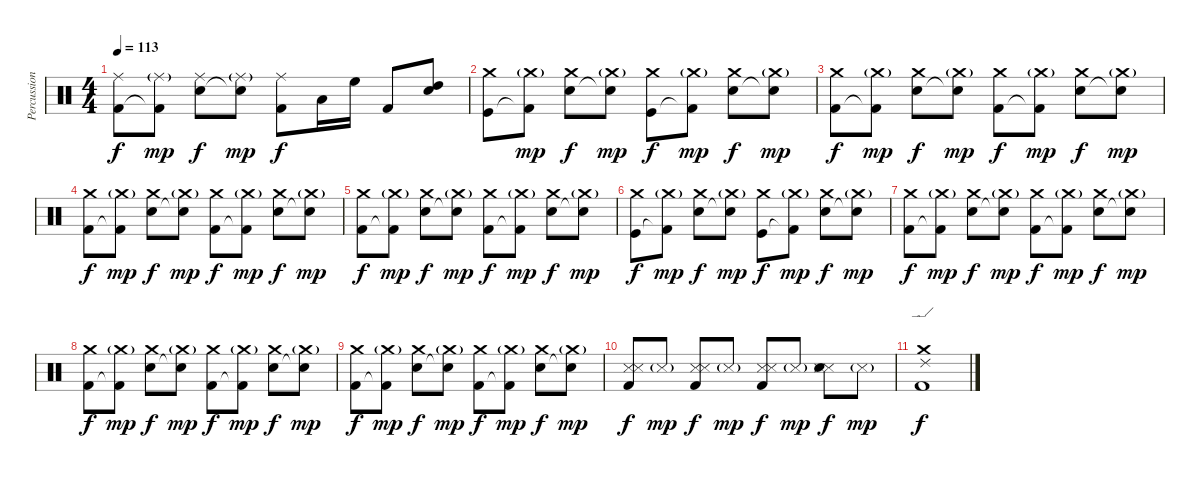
\track ("Percussion" "Percussion") {instrument percussion}
\staff {score}
\articulation defaults
\ts (4 4)
\tempo 113
\clef neutral
\ks c
("Ride (middle)" "Kick (hit) 2").8{dy f} ("Ride (middle)"{g} "Kick (hit) 2"{t}).8{dy mp} ("Ride (middle)" "Snare (hit) 2").8{dy f} ("Ride (middle)"{g} "Snare (hit) 2"{t}).8{dy mp} ("Ride (middle)" "Kick (hit) 2").8{dy f} "Low Tom (hit)".16 "High Floor Tom (hit)".16 "Kick (hit) 2".8 ("Snare (hit) 2" "High Tom (hit)").8 |
("Crash medium (hit)" "Kick (hit)").8 ("Crash medium (hit)"{g} "Kick (hit) 2"{t}).8{dy mp} ("Crash medium (hit)" "Snare (hit) 2").8{dy f} ("Crash medium (hit)"{g} "Snare (hit) 2"{t}).8{dy mp} ("Crash medium (hit)" "Kick (hit)").8{dy f} ("Crash medium (hit)"{g} "Kick (hit) 2"{t}).8{dy mp} ("Crash medium (hit)" "Snare (hit) 2").8{dy f} ("Crash medium (hit)"{g} "Snare (hit) 2"{t}).8{dy mp} |
("Crash medium (hit)" "Kick (hit) 2").8{dy f} ("Crash medium (hit)"{g} "Kick (hit) 2"{t}).8{dy mp} ("Crash medium (hit)" "Snare (hit) 2").8{dy f} ("Crash medium (hit)"{g} "Snare (hit) 2"{t}).8{dy mp} ("Crash medium (hit)" "Kick (hit) 2").8{dy f} ("Crash medium (hit)"{g} "Kick (hit) 2"{t}).8{dy mp} ("Crash medium (hit)" "Snare (hit) 2").8{dy f} ("Crash medium (hit)"{g} "Snare (hit) 2"{t}).8{dy mp} |
("Crash medium (hit)" "Kick (hit) 2").8{dy f} ("Crash medium (hit)"{g} "Kick (hit) 2"{t}).8{dy mp} ("Crash medium (hit)" "Snare (hit) 2").8{dy f} ("Crash medium (hit)"{g} "Snare (hit) 2"{t}).8{dy mp} ("Crash medium (hit)" "Kick (hit) 2").8{dy f} ("Crash medium (hit)"{g} "Kick (hit) 2"{t}).8{dy mp} ("Crash medium (hit)" "Snare (hit) 2").8{dy f} ("Crash medium (hit)"{g} "Snare (hit) 2"{t}).8{dy mp} |
("Crash medium (hit)" "Kick (hit) 2").8{dy f} ("Crash medium (hit)"{g} "Kick (hit) 2"{t}).8{dy mp} ("Crash medium (hit)" "Snare (hit) 2").8{dy f} ("Crash medium (hit)"{g} "Snare (hit) 2"{t}).8{dy mp} ("Crash medium (hit)" "Kick (hit) 2").8{dy f} ("Crash medium (hit)"{g} "Kick (hit) 2"{t}).8{dy mp} ("Crash medium (hit)" "Snare (hit) 2").8{dy f} ("Crash medium (hit)"{g} "Snare (hit) 2"{t}).8{dy mp} |
("Crash medium (hit)" "Kick (hit)").8{dy f} ("Crash medium (hit)"{g} "Kick (hit) 2"{t}).8{dy mp} ("Crash medium (hit)" "Snare (hit) 2").8{dy f} ("Crash medium (hit)"{g} "Snare (hit) 2"{t}).8{dy mp} ("Crash medium (hit)" "Kick (hit)").8{dy f} ("Crash medium (hit)"{g} "Kick (hit) 2"{t}).8{dy mp} ("Crash medium (hit)" "Snare (hit) 2").8{dy f} ("Crash medium (hit)"{g} "Snare (hit) 2"{t}).8{dy mp} |
("Crash medium (hit)" "Kick (hit) 2").8{dy f} ("Crash medium (hit)"{g} "Kick (hit) 2"{t}).8{dy mp} ("Crash medium (hit)" "Snare (hit) 2").8{dy f} ("Crash medium (hit)"{g} "Snare (hit) 2"{t}).8{dy mp} ("Crash medium (hit)" "Kick (hit) 2").8{dy f} ("Crash medium (hit)"{g} "Kick (hit) 2"{t}).8{dy mp} ("Crash medium (hit)" "Snare (hit) 2").8{dy f} ("Crash medium (hit)"{g} "Snare (hit) 2"{t}).8{dy mp} |
("Crash medium (hit)" "Kick (hit) 2").8{dy f} ("Crash medium (hit)"{g} "Kick (hit) 2"{t}).8{dy mp} ("Crash medium (hit)" "Snare (hit) 2").8{dy f} ("Crash medium (hit)"{g} "Snare (hit) 2"{t}).8{dy mp} ("Crash medium (hit)" "Kick (hit) 2").8{dy f} ("Crash medium (hit)"{g} "Kick (hit) 2"{t}).8{dy mp} ("Crash medium (hit)" "Snare (hit) 2").8{dy f} ("Crash medium (hit)"{g} "Snare (hit) 2"{t}).8{dy mp} |
("Crash medium (hit)" "Kick (hit) 2").8{dy f} ("Crash medium (hit)"{g} "Kick (hit) 2"{t}).8{dy mp} ("Crash medium (hit)" "Snare (hit) 2").8{dy f} ("Crash medium (hit)"{g} "Snare (hit) 2"{t}).8{dy mp} ("Crash medium (hit)" "Kick (hit) 2").8{dy f} ("Crash medium (hit)"{g} "Kick (hit) 2"{t}).8{dy mp} ("Crash medium (hit)" "Snare (hit) 2").8{dy f} ("Crash medium (hit)"{g} "Snare (hit) 2"{t}).8{dy mp} |
("Snare (side stick) 3" "Snare (side stick) 3" "Kick (hit) 2").8{dy f} "Snare (side stick) 3"{g}.8{dy mp} ("Snare (side stick) 3" "Snare (side stick) 3" "Kick (hit) 2").8{dy f} "Snare (side stick) 3"{g}.8{dy mp} ("Snare (side stick) 3" "Snare (side stick) 3" "Kick (hit) 2").8{dy f} "Snare (side stick) 3"{g}.8{dy mp} ("Snare (side stick) 3" "Snare (side stick) 3" "Snare (hit) 2").8{dy f} "Snare (side stick) 3"{g}.8{dy mp} |
("Crash medium (hit)" "Ride (edge) 2" "Kick (hit) 2").1{dy f}
